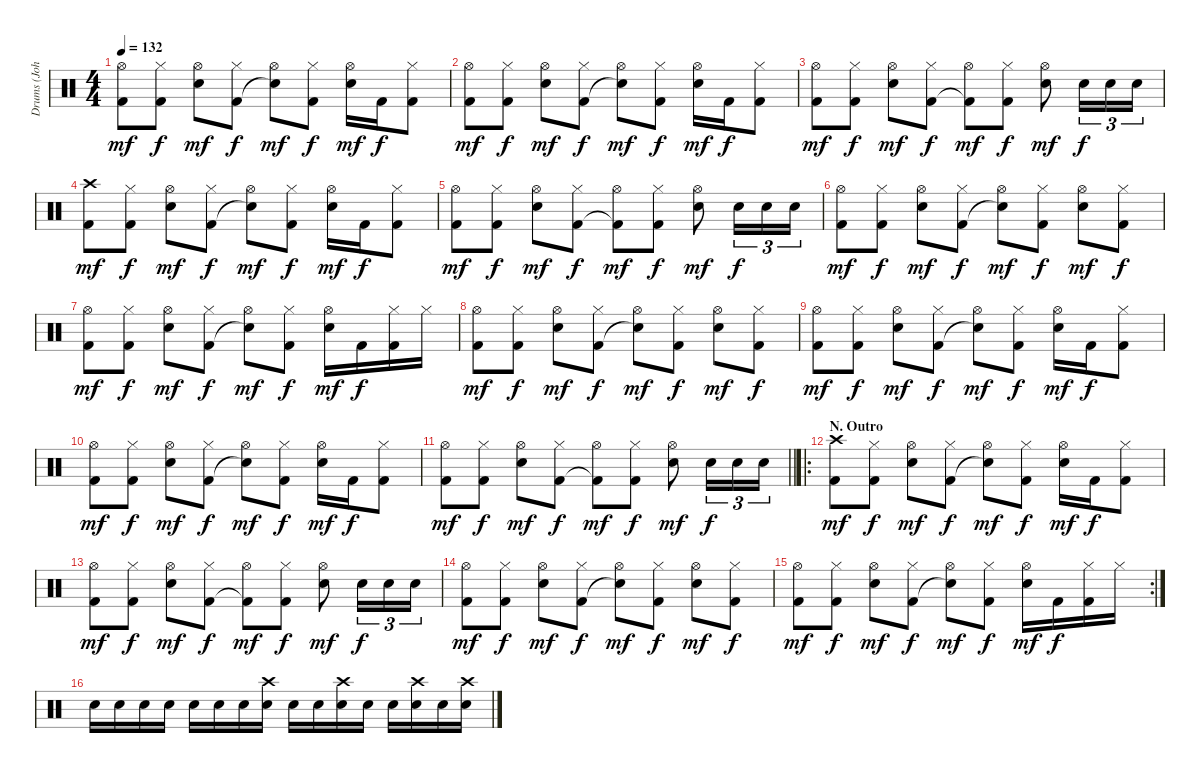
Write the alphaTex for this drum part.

\track ("Drums (John Bonham)" "Drums (Joh") {instrument percussion}
\staff {score}
\articulation defaults
\ts (4 4)
\tempo 132
\clef neutral
\ks c
("Hi-Hat (open)" "Kick (hit) 2").8{dy mf} ("Hi-Hat (closed)" "Kick (hit) 2").8{dy f} ("Hi-Hat (open)" "Electric Snare (hit)").8{dy mf} ("Hi-Hat (closed)" "Kick (hit) 2").8{dy f} ("Hi-Hat (open)" "Snare (hit)"{t}).8{dy mf} ("Hi-Hat (closed)" "Kick (hit) 2").8{dy f} ("Hi-Hat (open)" "Electric Snare (hit)").16{dy mf} "Kick (hit) 2".16{dy f} ("Hi-Hat (closed)" "Kick (hit) 2").8 |
("Hi-Hat (open)" "Kick (hit) 2").8{dy mf} ("Hi-Hat (closed)" "Kick (hit) 2").8{dy f} ("Hi-Hat (open)" "Electric Snare (hit)").8{dy mf} ("Hi-Hat (closed)" "Kick (hit) 2").8{dy f} ("Hi-Hat (open)" "Snare (hit)"{t}).8{dy mf} ("Hi-Hat (closed)" "Kick (hit) 2").8{dy f} ("Hi-Hat (open)" "Electric Snare (hit)").16{dy mf} "Kick (hit) 2".16{dy f} ("Hi-Hat (closed)" "Kick (hit) 2").8 |
("Hi-Hat (open)" "Kick (hit) 2").8{dy mf} ("Hi-Hat (closed)" "Kick (hit) 2").8{dy f} ("Hi-Hat (open)" "Electric Snare (hit)").8{dy mf} ("Hi-Hat (closed)" "Kick (hit) 2").8{dy f} ("Hi-Hat (open)" "Kick (hit) 2"{t}).8{dy mf} ("Hi-Hat (closed)" "Kick (hit) 2").8{dy f} ("Hi-Hat (open)" "Electric Snare (hit)").8{dy mf} "Electric Snare (hit)".16{tu (3 2) dy f} "Electric Snare (hit)".16{tu (3 2)} "Electric Snare (hit)".16{tu (3 2)} |
("Crash high (hit)" "Kick (hit) 2").8{dy mf} ("Hi-Hat (closed)" "Kick (hit) 2").8{dy f} ("Hi-Hat (open)" "Electric Snare (hit)").8{dy mf} ("Hi-Hat (closed)" "Kick (hit) 2").8{dy f} ("Hi-Hat (open)" "Snare (hit)"{t}).8{dy mf} ("Hi-Hat (closed)" "Kick (hit) 2").8{dy f} ("Hi-Hat (open)" "Electric Snare (hit)").16{dy mf} "Kick (hit) 2".16{dy f} ("Hi-Hat (closed)" "Kick (hit) 2").8 |
("Hi-Hat (open)" "Kick (hit) 2").8{dy mf} ("Hi-Hat (closed)" "Kick (hit) 2").8{dy f} ("Hi-Hat (open)" "Electric Snare (hit)").8{dy mf} ("Hi-Hat (closed)" "Kick (hit) 2").8{dy f} ("Hi-Hat (open)" "Kick (hit) 2"{t}).8{dy mf} ("Hi-Hat (closed)" "Kick (hit) 2").8{dy f} ("Hi-Hat (open)" "Electric Snare (hit)").8{dy mf} "Electric Snare (hit)".16{tu (3 2) dy f} "Electric Snare (hit)".16{tu (3 2)} "Electric Snare (hit)".16{tu (3 2)} |
("Hi-Hat (open)" "Kick (hit) 2").8{dy mf} ("Hi-Hat (closed)" "Kick (hit) 2").8{dy f} ("Hi-Hat (open)" "Electric Snare (hit)").8{dy mf} ("Hi-Hat (closed)" "Kick (hit) 2").8{dy f} ("Hi-Hat (open)" "Snare (hit)"{t}).8{dy mf} ("Hi-Hat (closed)" "Kick (hit) 2").8{dy f} ("Hi-Hat (open)" "Electric Snare (hit)").8{dy mf} ("Hi-Hat (closed)" "Kick (hit) 2").8{dy f} |
("Hi-Hat (open)" "Kick (hit) 2").8{dy mf} ("Hi-Hat (closed)" "Kick (hit) 2").8{dy f} ("Hi-Hat (open)" "Electric Snare (hit)").8{dy mf} ("Hi-Hat (closed)" "Kick (hit) 2").8{dy f} ("Hi-Hat (open)" "Snare (hit)"{t}).8{dy mf} ("Hi-Hat (closed)" "Kick (hit) 2").8{dy f} ("Hi-Hat (open)" "Electric Snare (hit)").16{dy mf} "Kick (hit) 2".16{dy f} ("Hi-Hat (closed)" "Kick (hit) 2").16 "Hi-Hat (closed)".16 |
("Hi-Hat (open)" "Kick (hit) 2").8{dy mf} ("Hi-Hat (closed)" "Kick (hit) 2").8{dy f} ("Hi-Hat (open)" "Electric Snare (hit)").8{dy mf} ("Hi-Hat (closed)" "Kick (hit) 2").8{dy f} ("Hi-Hat (open)" "Snare (hit)"{t}).8{dy mf} ("Hi-Hat (closed)" "Kick (hit) 2").8{dy f} ("Hi-Hat (open)" "Electric Snare (hit)").8{dy mf} ("Hi-Hat (closed)" "Kick (hit) 2").8{dy f} |
("Hi-Hat (open)" "Kick (hit) 2").8{dy mf} ("Hi-Hat (closed)" "Kick (hit) 2").8{dy f} ("Hi-Hat (open)" "Electric Snare (hit)").8{dy mf} ("Hi-Hat (closed)" "Kick (hit) 2").8{dy f} ("Hi-Hat (open)" "Snare (hit)"{t}).8{dy mf} ("Hi-Hat (closed)" "Kick (hit) 2").8{dy f} ("Hi-Hat (open)" "Electric Snare (hit)").16{dy mf} "Kick (hit) 2".16{dy f} ("Hi-Hat (closed)" "Kick (hit) 2").8 |
("Hi-Hat (open)" "Kick (hit) 2").8{dy mf} ("Hi-Hat (closed)" "Kick (hit) 2").8{dy f} ("Hi-Hat (open)" "Electric Snare (hit)").8{dy mf} ("Hi-Hat (closed)" "Kick (hit) 2").8{dy f} ("Hi-Hat (open)" "Snare (hit)"{t}).8{dy mf} ("Hi-Hat (closed)" "Kick (hit) 2").8{dy f} ("Hi-Hat (open)" "Electric Snare (hit)").16{dy mf} "Kick (hit) 2".16{dy f} ("Hi-Hat (closed)" "Kick (hit) 2").8 |
\barLineRight lightlight
("Hi-Hat (open)" "Kick (hit) 2").8{dy mf} ("Hi-Hat (closed)" "Kick (hit) 2").8{dy f} ("Hi-Hat (open)" "Electric Snare (hit)").8{dy mf} ("Hi-Hat (closed)" "Kick (hit) 2").8{dy f} ("Hi-Hat (open)" "Kick (hit) 2"{t}).8{dy mf} ("Hi-Hat (closed)" "Kick (hit) 2").8{dy f} ("Hi-Hat (open)" "Electric Snare (hit)").8{dy mf} "Electric Snare (hit)".16{tu (3 2) dy f} "Electric Snare (hit)".16{tu (3 2)} "Electric Snare (hit)".16{tu (3 2)} |
\ro
\section ("" "N. Outro")
("Crash high (hit)" "Kick (hit) 2").8{dy mf} ("Hi-Hat (closed)" "Kick (hit) 2").8{dy f} ("Hi-Hat (open)" "Electric Snare (hit)").8{dy mf} ("Hi-Hat (closed)" "Kick (hit) 2").8{dy f} ("Hi-Hat (open)" "Snare (hit)"{t}).8{dy mf} ("Hi-Hat (closed)" "Kick (hit) 2").8{dy f} ("Hi-Hat (open)" "Electric Snare (hit)").16{dy mf} "Kick (hit) 2".16{dy f} ("Hi-Hat (closed)" "Kick (hit) 2").8 |
("Hi-Hat (open)" "Kick (hit) 2").8{dy mf} ("Hi-Hat (closed)" "Kick (hit) 2").8{dy f} ("Hi-Hat (open)" "Electric Snare (hit)").8{dy mf} ("Hi-Hat (closed)" "Kick (hit) 2").8{dy f} ("Hi-Hat (open)" "Kick (hit) 2"{t}).8{dy mf} ("Hi-Hat (closed)" "Kick (hit) 2").8{dy f} ("Hi-Hat (open)" "Electric Snare (hit)").8{dy mf} "Electric Snare (hit)".16{tu (3 2) dy f} "Electric Snare (hit)".16{tu (3 2)} "Electric Snare (hit)".16{tu (3 2)} |
("Hi-Hat (open)" "Kick (hit) 2").8{dy mf} ("Hi-Hat (closed)" "Kick (hit) 2").8{dy f} ("Hi-Hat (open)" "Electric Snare (hit)").8{dy mf} ("Hi-Hat (closed)" "Kick (hit) 2").8{dy f} ("Hi-Hat (open)" "Snare (hit)"{t}).8{dy mf} ("Hi-Hat (closed)" "Kick (hit) 2").8{dy f} ("Hi-Hat (open)" "Electric Snare (hit)").8{dy mf} ("Hi-Hat (closed)" "Kick (hit) 2").8{dy f} |
\rc 2
("Hi-Hat (open)" "Kick (hit) 2").8{dy mf} ("Hi-Hat (closed)" "Kick (hit) 2").8{dy f} ("Hi-Hat (open)" "Electric Snare (hit)").8{dy mf} ("Hi-Hat (closed)" "Kick (hit) 2").8{dy f} ("Hi-Hat (open)" "Snare (hit)"{t}).8{dy mf} ("Hi-Hat (closed)" "Kick (hit) 2").8{dy f} ("Hi-Hat (open)" "Electric Snare (hit)").16{dy mf} "Kick (hit) 2".16{dy f} ("Hi-Hat (closed)" "Kick (hit) 2").16 "Hi-Hat (closed)".16 |
"Electric Snare (hit)".16 "Electric Snare (hit)".16 "Electric Snare (hit)".16 "Electric Snare (hit)".16 "Electric Snare (hit)".16 "Electric Snare (hit)".16 "Electric Snare (hit)".16 ("Crash high (hit)" "Electric Snare (hit)").16 "Electric Snare (hit)".16 "Electric Snare (hit)".16 ("Crash high (hit)" "Electric Snare (hit)").16 "Electric Snare (hit)".16 "Electric Snare (hit)".16 ("Crash high (hit)" "Electric Snare (hit)").16 "Electric Snare (hit)".16 ("Crash high (hit)" "Electric Snare (hit)").16
